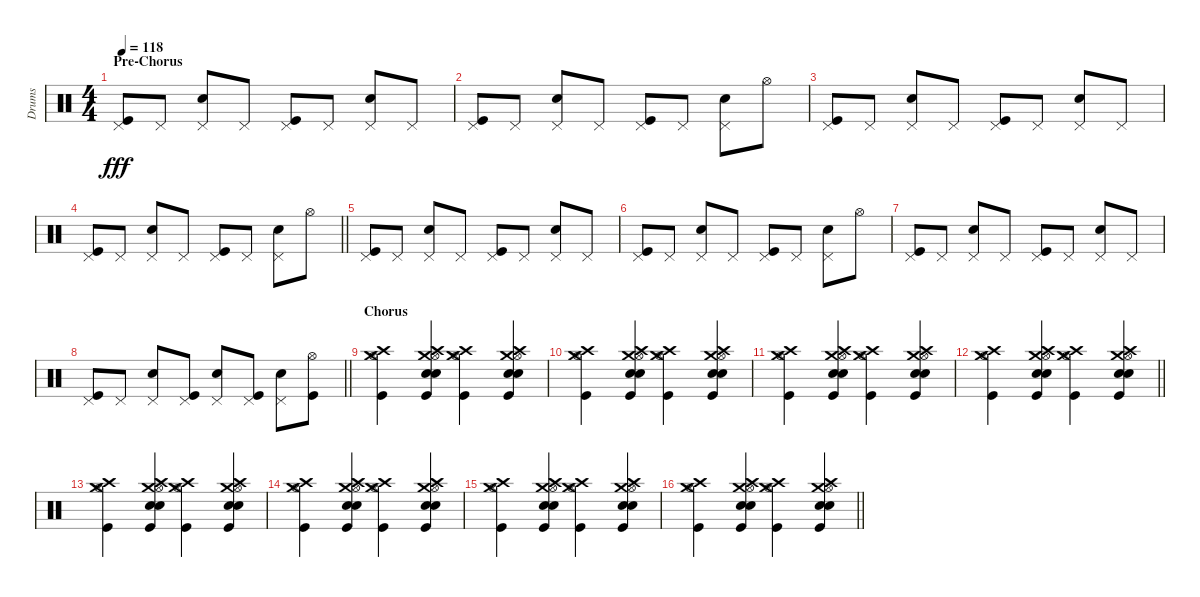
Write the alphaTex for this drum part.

\track ("Drums" "Drums") {instrument percussion}
\staff {score}
\articulation defaults
\ts (4 4)
\section ("" "Pre-Chorus")
\tempo 118
\clef neutral
\ks c
("Pedal Hi-Hat (hit)" "Kick (hit)").8{dy fff} "Pedal Hi-Hat (hit)".8 ("Pedal Hi-Hat (hit)" "Electric Snare (hit)").8 "Pedal Hi-Hat (hit)".8 ("Pedal Hi-Hat (hit)" "Kick (hit)").8 "Pedal Hi-Hat (hit)".8 ("Pedal Hi-Hat (hit)" "Electric Snare (hit)").8 "Pedal Hi-Hat (hit)".8 |
("Pedal Hi-Hat (hit)" "Kick (hit)").8 "Pedal Hi-Hat (hit)".8 ("Pedal Hi-Hat (hit)" "Electric Snare (hit)").8 "Pedal Hi-Hat (hit)".8 ("Pedal Hi-Hat (hit)" "Kick (hit)").8 "Pedal Hi-Hat (hit)".8 ("Pedal Hi-Hat (hit)" "Electric Snare (hit)").8 "Hi-Hat (open)".8 |
("Pedal Hi-Hat (hit)" "Kick (hit)").8 "Pedal Hi-Hat (hit)".8 ("Pedal Hi-Hat (hit)" "Electric Snare (hit)").8 "Pedal Hi-Hat (hit)".8 ("Pedal Hi-Hat (hit)" "Kick (hit)").8 "Pedal Hi-Hat (hit)".8 ("Pedal Hi-Hat (hit)" "Electric Snare (hit)").8 "Pedal Hi-Hat (hit)".8 |
\barLineRight lightlight
("Pedal Hi-Hat (hit)" "Kick (hit)").8 "Pedal Hi-Hat (hit)".8 ("Pedal Hi-Hat (hit)" "Electric Snare (hit)").8 "Pedal Hi-Hat (hit)".8 ("Pedal Hi-Hat (hit)" "Kick (hit)").8 "Pedal Hi-Hat (hit)".8 ("Pedal Hi-Hat (hit)" "Electric Snare (hit)").8 "Hi-Hat (open)".8 |
("Pedal Hi-Hat (hit)" "Kick (hit)").8 "Pedal Hi-Hat (hit)".8 ("Pedal Hi-Hat (hit)" "Electric Snare (hit)").8 "Pedal Hi-Hat (hit)".8 ("Pedal Hi-Hat (hit)" "Kick (hit)").8 "Pedal Hi-Hat (hit)".8 ("Pedal Hi-Hat (hit)" "Electric Snare (hit)").8 "Pedal Hi-Hat (hit)".8 |
("Pedal Hi-Hat (hit)" "Kick (hit)").8 "Pedal Hi-Hat (hit)".8 ("Pedal Hi-Hat (hit)" "Electric Snare (hit)").8 "Pedal Hi-Hat (hit)".8 ("Pedal Hi-Hat (hit)" "Kick (hit)").8 "Pedal Hi-Hat (hit)".8 ("Pedal Hi-Hat (hit)" "Electric Snare (hit)").8 "Hi-Hat (open)".8 |
("Pedal Hi-Hat (hit)" "Kick (hit)").8 "Pedal Hi-Hat (hit)".8 ("Pedal Hi-Hat (hit)" "Electric Snare (hit)").8 "Pedal Hi-Hat (hit)".8 ("Pedal Hi-Hat (hit)" "Kick (hit)").8 "Pedal Hi-Hat (hit)".8 ("Pedal Hi-Hat (hit)" "Electric Snare (hit)").8 "Pedal Hi-Hat (hit)".8 |
\barLineRight lightlight
("Pedal Hi-Hat (hit)" "Kick (hit)").8 "Pedal Hi-Hat (hit)".8 ("Pedal Hi-Hat (hit)" "Electric Snare (hit)").8 ("Pedal Hi-Hat (hit)" "Kick (hit)").8 ("Pedal Hi-Hat (hit)" "Electric Snare (hit)").8 ("Pedal Hi-Hat (hit)" "Kick (hit)").8 ("Pedal Hi-Hat (hit)" "Electric Snare (hit)").8 ("Hi-Hat (open)" "Kick (hit)").8 |
\section ("" "Chorus")
("Crash medium (hit)" "Crash high (hit)" "Hi-Hat (open)" "Kick (hit)").4 ("Crash medium (hit)" "Crash high (hit)" "Snare (hit) 2" "Hi-Hat (open)" "Electric Snare (hit)" "Kick (hit)").4 ("Crash medium (hit)" "Crash high (hit)" "Hi-Hat (open)" "Kick (hit)").4 ("Crash medium (hit)" "Crash high (hit)" "Snare (hit) 2" "Hi-Hat (open)" "Electric Snare (hit)" "Kick (hit)").4 |
("Crash medium (hit)" "Crash high (hit)" "Hi-Hat (open)" "Kick (hit)").4 ("Crash medium (hit)" "Crash high (hit)" "Snare (hit) 2" "Hi-Hat (open)" "Electric Snare (hit)" "Kick (hit)").4 ("Crash medium (hit)" "Crash high (hit)" "Hi-Hat (open)" "Kick (hit)").4 ("Crash medium (hit)" "Crash high (hit)" "Snare (hit) 2" "Hi-Hat (open)" "Electric Snare (hit)" "Kick (hit)").4 |
("Crash medium (hit)" "Crash high (hit)" "Hi-Hat (open)" "Kick (hit)").4 ("Crash medium (hit)" "Crash high (hit)" "Snare (hit) 2" "Hi-Hat (open)" "Electric Snare (hit)" "Kick (hit)").4 ("Crash medium (hit)" "Crash high (hit)" "Hi-Hat (open)" "Kick (hit)").4 ("Crash medium (hit)" "Crash high (hit)" "Snare (hit) 2" "Hi-Hat (open)" "Electric Snare (hit)" "Kick (hit)").4 |
\barLineRight lightlight
("Crash medium (hit)" "Crash high (hit)" "Hi-Hat (open)" "Kick (hit)").4 ("Crash medium (hit)" "Crash high (hit)" "Snare (hit) 2" "Hi-Hat (open)" "Electric Snare (hit)" "Kick (hit)").4 ("Crash medium (hit)" "Crash high (hit)" "Hi-Hat (open)" "Kick (hit)").4 ("Crash medium (hit)" "Crash high (hit)" "Snare (hit) 2" "Hi-Hat (open)" "Electric Snare (hit)" "Kick (hit)").4 |
("Crash medium (hit)" "Crash high (hit)" "Hi-Hat (open)" "Kick (hit)").4 ("Crash medium (hit)" "Crash high (hit)" "Snare (hit) 2" "Hi-Hat (open)" "Electric Snare (hit)" "Kick (hit)").4 ("Crash medium (hit)" "Crash high (hit)" "Hi-Hat (open)" "Kick (hit)").4 ("Crash medium (hit)" "Crash high (hit)" "Snare (hit) 2" "Hi-Hat (open)" "Electric Snare (hit)" "Kick (hit)").4 |
("Crash medium (hit)" "Crash high (hit)" "Hi-Hat (open)" "Kick (hit)").4 ("Crash medium (hit)" "Crash high (hit)" "Snare (hit) 2" "Hi-Hat (open)" "Electric Snare (hit)" "Kick (hit)").4 ("Crash medium (hit)" "Crash high (hit)" "Hi-Hat (open)" "Kick (hit)").4 ("Crash medium (hit)" "Crash high (hit)" "Snare (hit) 2" "Hi-Hat (open)" "Electric Snare (hit)" "Kick (hit)").4 |
("Crash medium (hit)" "Crash high (hit)" "Hi-Hat (open)" "Kick (hit)").4 ("Crash medium (hit)" "Crash high (hit)" "Snare (hit) 2" "Hi-Hat (open)" "Electric Snare (hit)" "Kick (hit)").4 ("Crash medium (hit)" "Crash high (hit)" "Hi-Hat (open)" "Kick (hit)").4 ("Crash medium (hit)" "Crash high (hit)" "Snare (hit) 2" "Hi-Hat (open)" "Electric Snare (hit)" "Kick (hit)").4 |
\barLineRight lightlight
("Crash medium (hit)" "Crash high (hit)" "Hi-Hat (open)" "Kick (hit)").4 ("Crash medium (hit)" "Crash high (hit)" "Snare (hit) 2" "Hi-Hat (open)" "Electric Snare (hit)" "Kick (hit)").4 ("Crash medium (hit)" "Crash high (hit)" "Hi-Hat (open)" "Kick (hit)").4 ("Crash medium (hit)" "Crash high (hit)" "Snare (hit) 2" "Hi-Hat (open)" "Electric Snare (hit)" "Kick (hit)").4
